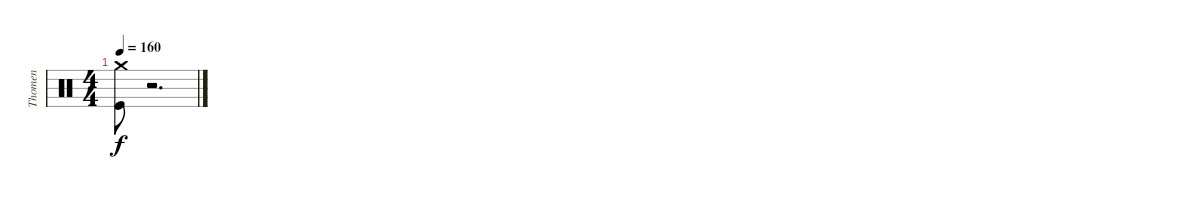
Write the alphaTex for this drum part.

\track ("Thomen" "Thomen") {instrument percussion}
\staff {score}
\articulation defaults
\ts (4 4)
\tempo 160
\clef neutral
\ks c
("Crash medium (hit)" "Kick (hit)").8{dy f} r.2{d volume 0}
